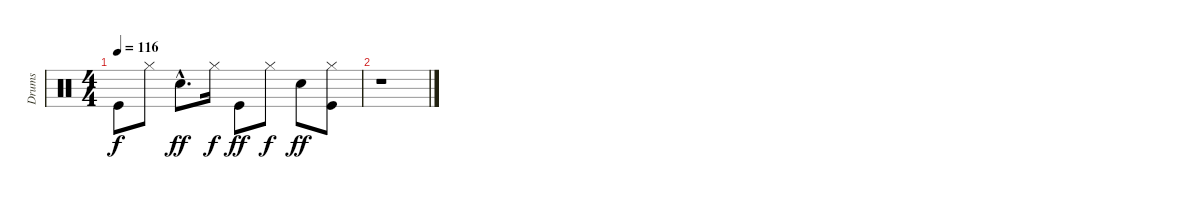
\track ("Drums" "Drums") {instrument percussion}
\staff {score}
\articulation defaults
\ts (4 4)
\tempo 116
\clef neutral
\ks c "Kick (hit)".8{dy f} "Hi-Hat (closed)".8 "Snare (hit) 2"{hac}.8{d dy ff} "Hi-Hat (closed)".16{dy f} "Kick (hit)".8{dy ff} "Hi-Hat (closed)".8{dy f} "Snare (hit) 2".8{dy ff}
("Hi-Hat (closed)" "Kick (hit)").8 |
r.1
